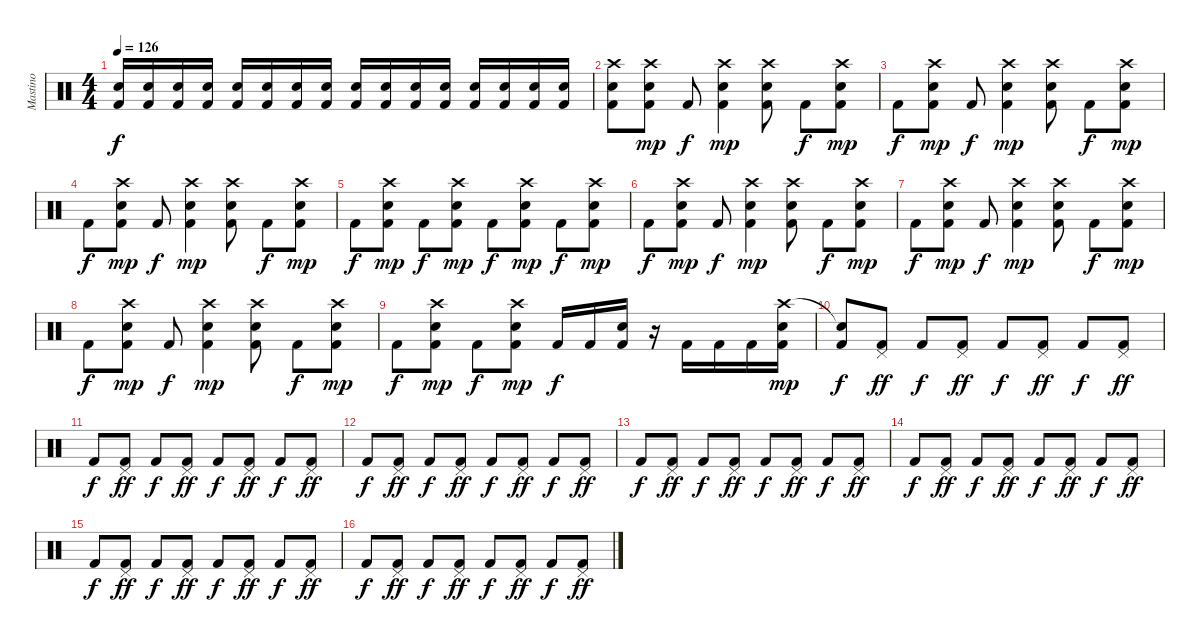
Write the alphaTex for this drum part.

\track ("Mastino" "Mastino") {instrument percussion}
\staff {score}
\articulation defaults
\ts (4 4)
\tempo 126
\clef neutral
\ks c
("Electric Snare (hit)" "Kick (hit) 2").16{dy f} ("Electric Snare (hit)" "Kick (hit) 2").16 ("Electric Snare (hit)" "Kick (hit) 2").16 ("Electric Snare (hit)" "Kick (hit) 2").16 ("Electric Snare (hit)" "Kick (hit) 2").16 ("Electric Snare (hit)" "Kick (hit) 2").16 ("Electric Snare (hit)" "Kick (hit) 2").16 ("Electric Snare (hit)" "Kick (hit) 2").16 ("Electric Snare (hit)" "Kick (hit) 2").16 ("Electric Snare (hit)" "Kick (hit) 2").16 ("Electric Snare (hit)" "Kick (hit) 2").16 ("Electric Snare (hit)" "Kick (hit) 2").16 ("Electric Snare (hit)" "Kick (hit) 2").16 ("Electric Snare (hit)" "Kick (hit) 2").16 ("Electric Snare (hit)" "Kick (hit) 2").16 ("Electric Snare (hit)" "Kick (hit) 2").16 |
("Crash high (hit)" "Electric Snare (hit)" "Kick (hit) 2").8 ("Crash high (hit)" "Electric Snare (hit)" "Kick (hit) 2").8{dy mp} "Kick (hit) 2".8{dy f} ("Crash high (hit)" "Electric Snare (hit)" "Kick (hit) 2").4{dy mp} ("Crash high (hit)" "Electric Snare (hit)" "Kick (hit) 2").8 "Kick (hit) 2".8{dy f} ("Crash high (hit)" "Electric Snare (hit)" "Kick (hit) 2").8{dy mp} |
"Kick (hit) 2".8{dy f} ("Crash high (hit)" "Electric Snare (hit)" "Kick (hit) 2").8{dy mp} "Kick (hit) 2".8{dy f} ("Crash high (hit)" "Electric Snare (hit)" "Kick (hit) 2").4{dy mp} ("Crash high (hit)" "Electric Snare (hit)" "Kick (hit) 2").8 "Kick (hit) 2".8{dy f} ("Crash high (hit)" "Electric Snare (hit)" "Kick (hit) 2").8{dy mp} |
"Kick (hit) 2".8{dy f} ("Crash high (hit)" "Electric Snare (hit)" "Kick (hit) 2").8{dy mp} "Kick (hit) 2".8{dy f} ("Crash high (hit)" "Electric Snare (hit)" "Kick (hit) 2").4{dy mp} ("Crash high (hit)" "Electric Snare (hit)" "Kick (hit) 2").8 "Kick (hit) 2".8{dy f} ("Crash high (hit)" "Electric Snare (hit)" "Kick (hit) 2").8{dy mp} |
"Kick (hit) 2".8{dy f} ("Crash high (hit)" "Electric Snare (hit)" "Kick (hit) 2").8{dy mp} "Kick (hit) 2".8{dy f} ("Crash high (hit)" "Electric Snare (hit)" "Kick (hit) 2").8{dy mp} "Kick (hit) 2".8{dy f} ("Crash high (hit)" "Electric Snare (hit)" "Kick (hit) 2").8{dy mp} "Kick (hit) 2".8{dy f} ("Crash high (hit)" "Electric Snare (hit)" "Kick (hit) 2").8{dy mp} |
"Kick (hit) 2".8{dy f} ("Crash high (hit)" "Electric Snare (hit)" "Kick (hit) 2").8{dy mp} "Kick (hit) 2".8{dy f} ("Crash high (hit)" "Electric Snare (hit)" "Kick (hit) 2").4{dy mp} ("Crash high (hit)" "Electric Snare (hit)" "Kick (hit) 2").8 "Kick (hit) 2".8{dy f} ("Crash high (hit)" "Electric Snare (hit)" "Kick (hit) 2").8{dy mp} |
"Kick (hit) 2".8{dy f} ("Crash high (hit)" "Electric Snare (hit)" "Kick (hit) 2").8{dy mp} "Kick (hit) 2".8{dy f} ("Crash high (hit)" "Electric Snare (hit)" "Kick (hit) 2").4{dy mp} ("Crash high (hit)" "Electric Snare (hit)" "Kick (hit) 2").8 "Kick (hit) 2".8{dy f} ("Crash high (hit)" "Electric Snare (hit)" "Kick (hit) 2").8{dy mp} |
"Kick (hit) 2".8{dy f} ("Crash high (hit)" "Electric Snare (hit)" "Kick (hit) 2").8{dy mp} "Kick (hit) 2".8{dy f} ("Crash high (hit)" "Electric Snare (hit)" "Kick (hit) 2").4{dy mp} ("Crash high (hit)" "Electric Snare (hit)" "Kick (hit) 2").8 "Kick (hit) 2".8{dy f} ("Crash high (hit)" "Electric Snare (hit)" "Kick (hit) 2").8{dy mp} |
"Kick (hit) 2".8{dy f} ("Crash high (hit)" "Electric Snare (hit)" "Kick (hit) 2").8{dy mp} "Kick (hit) 2".8{dy f} ("Crash high (hit)" "Electric Snare (hit)" "Kick (hit) 2").8{dy mp} "Kick (hit) 2".16{dy f} "Kick (hit) 2".16 ("Electric Snare (hit)" "Kick (hit) 2").16 r.16 "Kick (hit) 2".16 "Kick (hit) 2".16 "Kick (hit) 2".16 ("Crash high (hit)" "Electric Snare (hit)" "Kick (hit) 2").16{dy mp} |
("Snare (hit)"{t} "Kick (hit) 2").8{dy f} ("Pedal Hi-Hat (hit)" "Kick (hit) 2").8{dy ff} "Kick (hit) 2".8{dy f} ("Pedal Hi-Hat (hit)" "Kick (hit) 2").8{dy ff} "Kick (hit) 2".8{dy f} ("Pedal Hi-Hat (hit)" "Kick (hit) 2").8{dy ff} "Kick (hit) 2".8{dy f} ("Pedal Hi-Hat (hit)" "Kick (hit) 2").8{dy ff} |
"Kick (hit) 2".8{dy f} ("Pedal Hi-Hat (hit)" "Kick (hit) 2").8{dy ff} "Kick (hit) 2".8{dy f} ("Pedal Hi-Hat (hit)" "Kick (hit) 2").8{dy ff} "Kick (hit) 2".8{dy f} ("Pedal Hi-Hat (hit)" "Kick (hit) 2").8{dy ff} "Kick (hit) 2".8{dy f} ("Pedal Hi-Hat (hit)" "Kick (hit) 2").8{dy ff} |
"Kick (hit) 2".8{dy f} ("Pedal Hi-Hat (hit)" "Kick (hit) 2").8{dy ff} "Kick (hit) 2".8{dy f} ("Pedal Hi-Hat (hit)" "Kick (hit) 2").8{dy ff} "Kick (hit) 2".8{dy f} ("Pedal Hi-Hat (hit)" "Kick (hit) 2").8{dy ff} "Kick (hit) 2".8{dy f} ("Pedal Hi-Hat (hit)" "Kick (hit) 2").8{dy ff} |
"Kick (hit) 2".8{dy f} ("Pedal Hi-Hat (hit)" "Kick (hit) 2").8{dy ff} "Kick (hit) 2".8{dy f} ("Pedal Hi-Hat (hit)" "Kick (hit) 2").8{dy ff} "Kick (hit) 2".8{dy f} ("Pedal Hi-Hat (hit)" "Kick (hit) 2").8{dy ff} "Kick (hit) 2".8{dy f} ("Pedal Hi-Hat (hit)" "Kick (hit) 2").8{dy ff} |
"Kick (hit) 2".8{dy f} ("Pedal Hi-Hat (hit)" "Kick (hit) 2").8{dy ff} "Kick (hit) 2".8{dy f} ("Pedal Hi-Hat (hit)" "Kick (hit) 2").8{dy ff} "Kick (hit) 2".8{dy f} ("Pedal Hi-Hat (hit)" "Kick (hit) 2").8{dy ff} "Kick (hit) 2".8{dy f} ("Pedal Hi-Hat (hit)" "Kick (hit) 2").8{dy ff} |
"Kick (hit) 2".8{dy f} ("Pedal Hi-Hat (hit)" "Kick (hit) 2").8{dy ff} "Kick (hit) 2".8{dy f} ("Pedal Hi-Hat (hit)" "Kick (hit) 2").8{dy ff} "Kick (hit) 2".8{dy f} ("Pedal Hi-Hat (hit)" "Kick (hit) 2").8{dy ff} "Kick (hit) 2".8{dy f} ("Pedal Hi-Hat (hit)" "Kick (hit) 2").8{dy ff} |
"Kick (hit) 2".8{dy f} ("Pedal Hi-Hat (hit)" "Kick (hit) 2").8{dy ff} "Kick (hit) 2".8{dy f} ("Pedal Hi-Hat (hit)" "Kick (hit) 2").8{dy ff} "Kick (hit) 2".8{dy f} ("Pedal Hi-Hat (hit)" "Kick (hit) 2").8{dy ff} "Kick (hit) 2".8{dy f} ("Pedal Hi-Hat (hit)" "Kick (hit) 2").8{dy ff}
